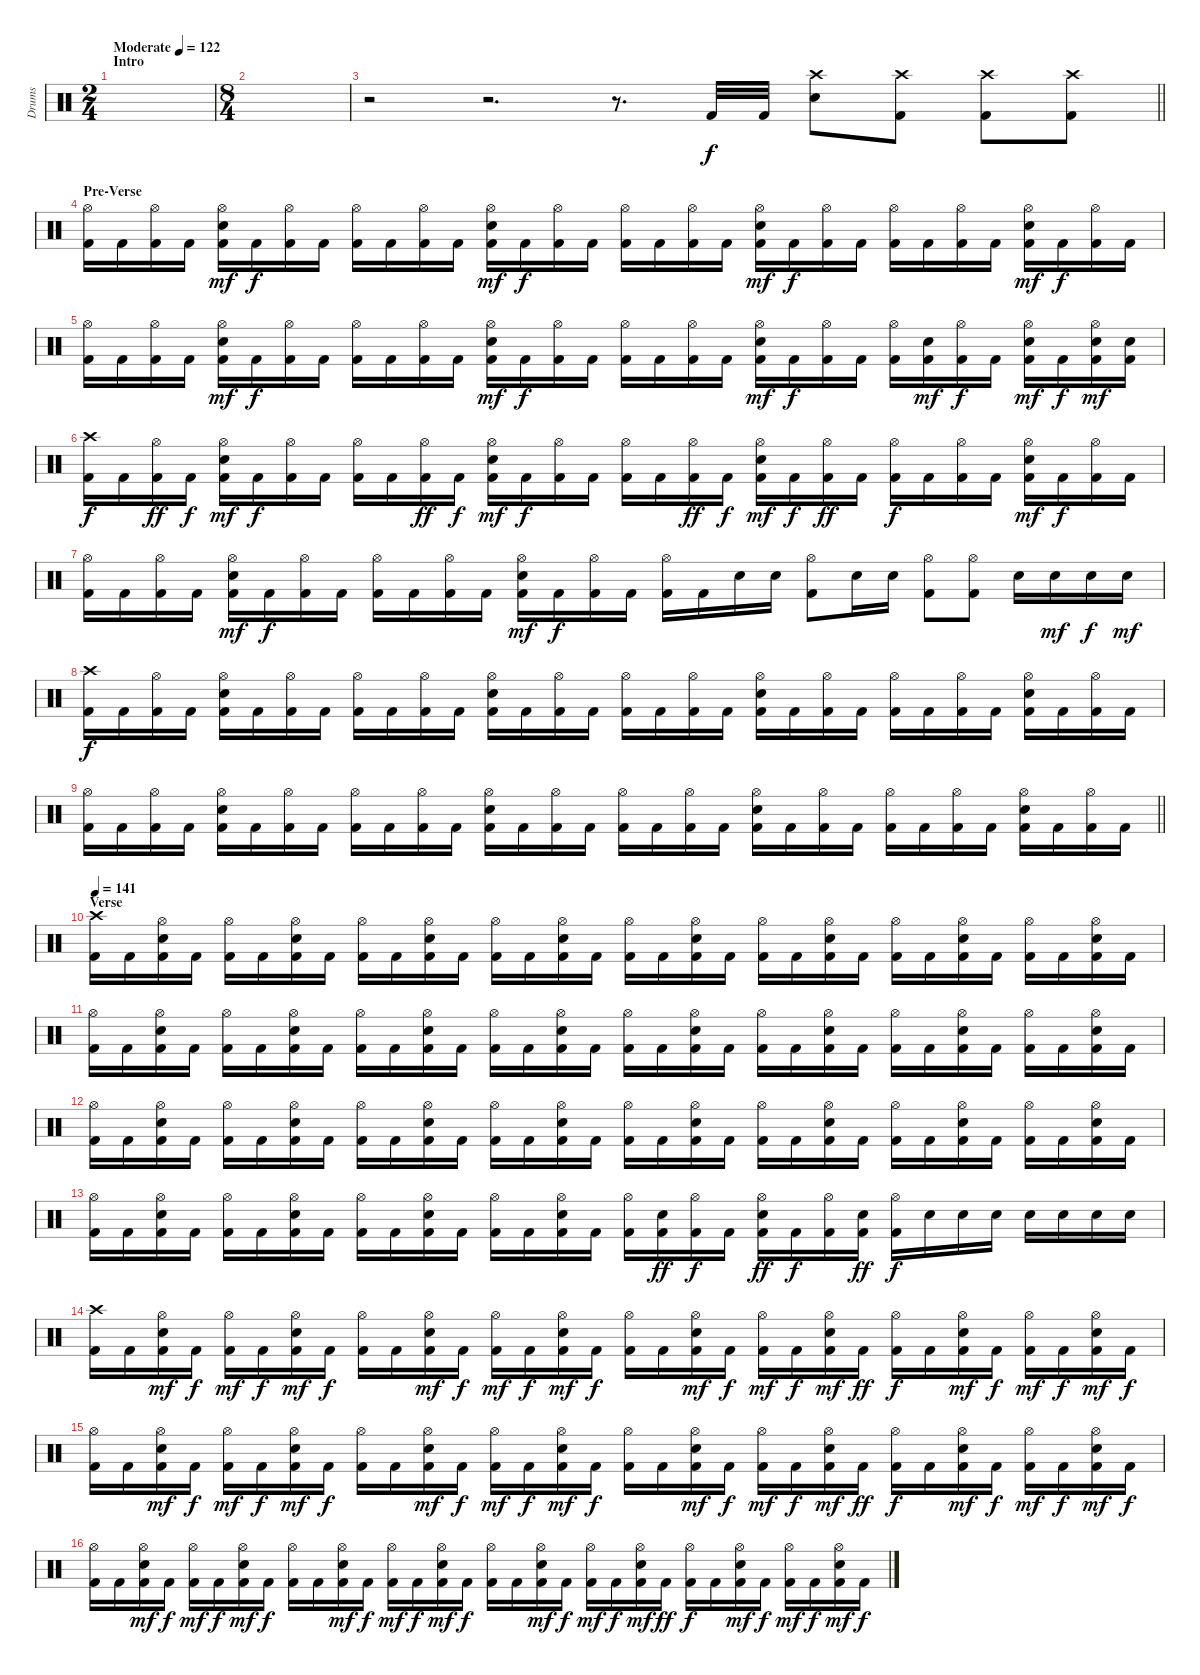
\track ("Drums" "Drums") {instrument percussion}
\staff {score}
\articulation defaults
\ts (2 4)
\section ("" "Intro")
\tempo (122 "Moderate")
\tempo 129
\tempo (122 "Moderate")
\clef neutral
\ks c
|
\ts (8 4)
|
\barLineRight lightlight
r.2 r.2{d} r.8{d} "Kick (hit) 2".32 "Kick (hit) 2".32 ("Crash high (hit)" "Snare (hit) 2").8 ("Crash high (hit)" "Kick (hit) 2").8 ("Crash high (hit)" "Kick (hit) 2").8 ("Crash high (hit)" "Kick (hit) 2").8 |
\section ("" "Pre-Verse")
("Hi-Hat (open)" "Kick (hit) 2").16 "Kick (hit) 2".16 ("Hi-Hat (open)" "Kick (hit) 2").16 "Kick (hit) 2".16 ("Hi-Hat (open)" "Snare (hit) 2" "Kick (hit) 2").16{dy mf} "Kick (hit) 2".16{dy f} ("Hi-Hat (open)" "Kick (hit) 2").16 "Kick (hit) 2".16 ("Hi-Hat (open)" "Kick (hit) 2").16 "Kick (hit) 2".16 ("Hi-Hat (open)" "Kick (hit) 2").16 "Kick (hit) 2".16 ("Hi-Hat (open)" "Snare (hit) 2" "Kick (hit) 2").16{dy mf} "Kick (hit) 2".16{dy f} ("Hi-Hat (open)" "Kick (hit) 2").16 "Kick (hit) 2".16 ("Hi-Hat (open)" "Kick (hit) 2").16 "Kick (hit) 2".16 ("Hi-Hat (open)" "Kick (hit) 2").16 "Kick (hit) 2".16 ("Hi-Hat (open)" "Snare (hit) 2" "Kick (hit) 2").16{dy mf} "Kick (hit) 2".16{dy f} ("Hi-Hat (open)" "Kick (hit) 2").16 "Kick (hit) 2".16 ("Hi-Hat (open)" "Kick (hit) 2").16 "Kick (hit) 2".16 ("Hi-Hat (open)" "Kick (hit) 2").16 "Kick (hit) 2".16 ("Hi-Hat (open)" "Snare (hit) 2" "Kick (hit) 2").16{dy mf} "Kick (hit) 2".16{dy f} ("Hi-Hat (open)" "Kick (hit) 2").16 "Kick (hit) 2".16 |
("Hi-Hat (open)" "Kick (hit) 2").16 "Kick (hit) 2".16 ("Hi-Hat (open)" "Kick (hit) 2").16 "Kick (hit) 2".16 ("Hi-Hat (open)" "Snare (hit) 2" "Kick (hit) 2").16{dy mf} "Kick (hit) 2".16{dy f} ("Hi-Hat (open)" "Kick (hit) 2").16 "Kick (hit) 2".16 ("Hi-Hat (open)" "Kick (hit) 2").16 "Kick (hit) 2".16 ("Hi-Hat (open)" "Kick (hit) 2").16 "Kick (hit) 2".16 ("Hi-Hat (open)" "Snare (hit) 2" "Kick (hit) 2").16{dy mf} "Kick (hit) 2".16{dy f} ("Hi-Hat (open)" "Kick (hit) 2").16 "Kick (hit) 2".16 ("Hi-Hat (open)" "Kick (hit) 2").16 "Kick (hit) 2".16 ("Hi-Hat (open)" "Kick (hit) 2").16 "Kick (hit) 2".16 ("Hi-Hat (open)" "Snare (hit) 2" "Kick (hit) 2").16{dy mf} "Kick (hit) 2".16{dy f} ("Hi-Hat (open)" "Kick (hit) 2").16 "Kick (hit) 2".16 ("Hi-Hat (open)" "Kick (hit) 2").16 ("Snare (hit) 2" "Kick (hit) 2").16{dy mf} ("Hi-Hat (open)" "Kick (hit) 2").16{dy f} "Kick (hit) 2".16 ("Hi-Hat (open)" "Snare (hit) 2" "Kick (hit) 2").16{dy mf} "Kick (hit) 2".16{dy f} ("Hi-Hat (open)" "Snare (hit) 2" "Kick (hit) 2").16{dy mf} ("Snare (hit) 2" "Kick (hit) 2").16 |
("Crash high (hit)" "Kick (hit) 2").16{dy f} "Kick (hit) 2".16 ("Hi-Hat (open)" "Kick (hit) 2").16{dy ff} "Kick (hit) 2".16{dy f} ("Hi-Hat (open)" "Snare (hit) 2" "Kick (hit) 2").16{dy mf} "Kick (hit) 2".16{dy f} ("Hi-Hat (open)" "Kick (hit) 2").16 "Kick (hit) 2".16 ("Hi-Hat (open)" "Kick (hit) 2").16 "Kick (hit) 2".16 ("Hi-Hat (open)" "Kick (hit) 2").16{dy ff} "Kick (hit) 2".16{dy f} ("Hi-Hat (open)" "Snare (hit) 2" "Kick (hit) 2").16{dy mf} "Kick (hit) 2".16{dy f} ("Hi-Hat (open)" "Kick (hit) 2").16 "Kick (hit) 2".16 ("Hi-Hat (open)" "Kick (hit) 2").16 "Kick (hit) 2".16 ("Hi-Hat (open)" "Kick (hit) 2").16{dy ff} "Kick (hit) 2".16{dy f} ("Hi-Hat (open)" "Snare (hit) 2" "Kick (hit) 2").16{dy mf} "Kick (hit) 2".16{dy f} ("Hi-Hat (open)" "Kick (hit) 2").16{dy ff} "Kick (hit) 2".16 ("Hi-Hat (open)" "Kick (hit) 2").16{dy f} "Kick (hit) 2".16 ("Hi-Hat (open)" "Kick (hit) 2").16 "Kick (hit) 2".16 ("Hi-Hat (open)" "Snare (hit) 2" "Kick (hit) 2").16{dy mf} "Kick (hit) 2".16{dy f} ("Hi-Hat (open)" "Kick (hit) 2").16 "Kick (hit) 2".16 |
("Hi-Hat (open)" "Kick (hit) 2").16 "Kick (hit) 2".16 ("Hi-Hat (open)" "Kick (hit) 2").16 "Kick (hit) 2".16 ("Hi-Hat (open)" "Snare (hit) 2" "Kick (hit) 2").16{dy mf} "Kick (hit) 2".16{dy f} ("Hi-Hat (open)" "Kick (hit) 2").16 "Kick (hit) 2".16 ("Hi-Hat (open)" "Kick (hit) 2").16 "Kick (hit) 2".16 ("Hi-Hat (open)" "Kick (hit) 2").16 "Kick (hit) 2".16 ("Hi-Hat (open)" "Snare (hit) 2" "Kick (hit) 2").16{dy mf} "Kick (hit) 2".16{dy f} ("Hi-Hat (open)" "Kick (hit) 2").16 "Kick (hit) 2".16 ("Hi-Hat (open)" "Kick (hit) 2").16 "Kick (hit) 2".16 "Snare (hit) 2".16 "Snare (hit) 2".16 ("Hi-Hat (open)" "Kick (hit) 2").8 "Snare (hit) 2".16 "Snare (hit) 2".16 ("Hi-Hat (open)" "Kick (hit) 2").8 ("Hi-Hat (open)" "Kick (hit) 2").8 "Snare (hit) 2".16 "Snare (hit) 2".16{dy mf} "Snare (hit) 2".16{dy f} "Snare (hit) 2".16{dy mf} |
("Crash high (hit)" "Kick (hit) 2").16{dy f} "Kick (hit) 2".16 ("Hi-Hat (open)" "Kick (hit) 2").16 "Kick (hit) 2".16 ("Hi-Hat (open)" "Snare (hit) 2" "Kick (hit) 2").16 "Kick (hit) 2".16 ("Hi-Hat (open)" "Kick (hit) 2").16 "Kick (hit) 2".16 ("Hi-Hat (open)" "Kick (hit) 2").16 "Kick (hit) 2".16 ("Hi-Hat (open)" "Kick (hit) 2").16 "Kick (hit) 2".16 ("Hi-Hat (open)" "Snare (hit) 2" "Kick (hit) 2").16 "Kick (hit) 2".16 ("Hi-Hat (open)" "Kick (hit) 2").16 "Kick (hit) 2".16 ("Hi-Hat (open)" "Kick (hit) 2").16 "Kick (hit) 2".16 ("Hi-Hat (open)" "Kick (hit) 2").16 "Kick (hit) 2".16 ("Hi-Hat (open)" "Snare (hit) 2" "Kick (hit) 2").16 "Kick (hit) 2".16 ("Hi-Hat (open)" "Kick (hit) 2").16 "Kick (hit) 2".16 ("Hi-Hat (open)" "Kick (hit) 2").16 "Kick (hit) 2".16 ("Hi-Hat (open)" "Kick (hit) 2").16 "Kick (hit) 2".16 ("Hi-Hat (open)" "Snare (hit) 2" "Kick (hit) 2").16 "Kick (hit) 2".16 ("Hi-Hat (open)" "Kick (hit) 2").16 "Kick (hit) 2".16 |
\barLineRight lightlight
("Hi-Hat (open)" "Kick (hit) 2").16 "Kick (hit) 2".16 ("Hi-Hat (open)" "Kick (hit) 2").16 "Kick (hit) 2".16 ("Hi-Hat (open)" "Snare (hit) 2" "Kick (hit) 2").16 "Kick (hit) 2".16 ("Hi-Hat (open)" "Kick (hit) 2").16 "Kick (hit) 2".16 ("Hi-Hat (open)" "Kick (hit) 2").16 "Kick (hit) 2".16 ("Hi-Hat (open)" "Kick (hit) 2").16 "Kick (hit) 2".16 ("Hi-Hat (open)" "Snare (hit) 2" "Kick (hit) 2").16 "Kick (hit) 2".16 ("Hi-Hat (open)" "Kick (hit) 2").16 "Kick (hit) 2".16 ("Hi-Hat (open)" "Kick (hit) 2").16 "Kick (hit) 2".16 ("Hi-Hat (open)" "Kick (hit) 2").16 "Kick (hit) 2".16 ("Hi-Hat (open)" "Snare (hit) 2" "Kick (hit) 2").16 "Kick (hit) 2".16 ("Hi-Hat (open)" "Kick (hit) 2").16 "Kick (hit) 2".16 ("Hi-Hat (open)" "Kick (hit) 2").16 "Kick (hit) 2".16 ("Hi-Hat (open)" "Kick (hit) 2").16 "Kick (hit) 2".16 ("Hi-Hat (open)" "Snare (hit) 2" "Kick (hit) 2").16 "Kick (hit) 2".16 ("Hi-Hat (open)" "Kick (hit) 2").16 "Kick (hit) 2".16 |
\section ("" "Verse")
\tempo 141
("Crash high (hit)" "Kick (hit) 2").16 "Kick (hit) 2".16 ("Hi-Hat (open)" "Snare (hit) 2" "Kick (hit) 2").16 "Kick (hit) 2".16 ("Hi-Hat (open)" "Kick (hit) 2").16 "Kick (hit) 2".16 ("Hi-Hat (open)" "Snare (hit) 2" "Kick (hit) 2").16 "Kick (hit) 2".16 ("Hi-Hat (open)" "Kick (hit) 2").16 "Kick (hit) 2".16 ("Hi-Hat (open)" "Snare (hit) 2" "Kick (hit) 2").16 "Kick (hit) 2".16 ("Hi-Hat (open)" "Kick (hit) 2").16 "Kick (hit) 2".16 ("Hi-Hat (open)" "Snare (hit) 2" "Kick (hit) 2").16 "Kick (hit) 2".16 ("Hi-Hat (open)" "Kick (hit) 2").16 "Kick (hit) 2".16 ("Hi-Hat (open)" "Snare (hit) 2" "Kick (hit) 2").16 "Kick (hit) 2".16 ("Hi-Hat (open)" "Kick (hit) 2").16 "Kick (hit) 2".16 ("Hi-Hat (open)" "Snare (hit) 2" "Kick (hit) 2").16 "Kick (hit) 2".16 ("Hi-Hat (open)" "Kick (hit) 2").16 "Kick (hit) 2".16 ("Hi-Hat (open)" "Snare (hit) 2" "Kick (hit) 2").16 "Kick (hit) 2".16 ("Hi-Hat (open)" "Kick (hit) 2").16 "Kick (hit) 2".16 ("Hi-Hat (open)" "Snare (hit) 2" "Kick (hit) 2").16 "Kick (hit) 2".16 |
("Hi-Hat (open)" "Kick (hit) 2").16 "Kick (hit) 2".16 ("Hi-Hat (open)" "Snare (hit) 2" "Kick (hit) 2").16 "Kick (hit) 2".16 ("Hi-Hat (open)" "Kick (hit) 2").16 "Kick (hit) 2".16 ("Hi-Hat (open)" "Snare (hit) 2" "Kick (hit) 2").16 "Kick (hit) 2".16 ("Hi-Hat (open)" "Kick (hit) 2").16 "Kick (hit) 2".16 ("Hi-Hat (open)" "Snare (hit) 2" "Kick (hit) 2").16 "Kick (hit) 2".16 ("Hi-Hat (open)" "Kick (hit) 2").16 "Kick (hit) 2".16 ("Hi-Hat (open)" "Snare (hit) 2" "Kick (hit) 2").16 "Kick (hit) 2".16 ("Hi-Hat (open)" "Kick (hit) 2").16 "Kick (hit) 2".16 ("Hi-Hat (open)" "Snare (hit) 2" "Kick (hit) 2").16 "Kick (hit) 2".16 ("Hi-Hat (open)" "Kick (hit) 2").16 "Kick (hit) 2".16 ("Hi-Hat (open)" "Snare (hit) 2" "Kick (hit) 2").16 "Kick (hit) 2".16 ("Hi-Hat (open)" "Kick (hit) 2").16 "Kick (hit) 2".16 ("Hi-Hat (open)" "Snare (hit) 2" "Kick (hit) 2").16 "Kick (hit) 2".16 ("Hi-Hat (open)" "Kick (hit) 2").16 "Kick (hit) 2".16 ("Hi-Hat (open)" "Snare (hit) 2" "Kick (hit) 2").16 "Kick (hit) 2".16 |
("Hi-Hat (open)" "Kick (hit) 2").16 "Kick (hit) 2".16 ("Hi-Hat (open)" "Snare (hit) 2" "Kick (hit) 2").16 "Kick (hit) 2".16 ("Hi-Hat (open)" "Kick (hit) 2").16 "Kick (hit) 2".16 ("Hi-Hat (open)" "Snare (hit) 2" "Kick (hit) 2").16 "Kick (hit) 2".16 ("Hi-Hat (open)" "Kick (hit) 2").16 "Kick (hit) 2".16 ("Hi-Hat (open)" "Snare (hit) 2" "Kick (hit) 2").16 "Kick (hit) 2".16 ("Hi-Hat (open)" "Kick (hit) 2").16 "Kick (hit) 2".16 ("Hi-Hat (open)" "Snare (hit) 2" "Kick (hit) 2").16 "Kick (hit) 2".16 ("Hi-Hat (open)" "Kick (hit) 2").16 "Kick (hit) 2".16 ("Hi-Hat (open)" "Snare (hit) 2" "Kick (hit) 2").16 "Kick (hit) 2".16 ("Hi-Hat (open)" "Kick (hit) 2").16 "Kick (hit) 2".16 ("Hi-Hat (open)" "Snare (hit) 2" "Kick (hit) 2").16 "Kick (hit) 2".16 ("Hi-Hat (open)" "Kick (hit) 2").16 "Kick (hit) 2".16 ("Hi-Hat (open)" "Snare (hit) 2" "Kick (hit) 2").16 "Kick (hit) 2".16 ("Hi-Hat (open)" "Kick (hit) 2").16 "Kick (hit) 2".16 ("Hi-Hat (open)" "Snare (hit) 2" "Kick (hit) 2").16 "Kick (hit) 2".16 |
("Hi-Hat (open)" "Kick (hit) 2").16 "Kick (hit) 2".16 ("Hi-Hat (open)" "Snare (hit) 2" "Kick (hit) 2").16 "Kick (hit) 2".16 ("Hi-Hat (open)" "Kick (hit) 2").16 "Kick (hit) 2".16 ("Hi-Hat (open)" "Snare (hit) 2" "Kick (hit) 2").16 "Kick (hit) 2".16 ("Hi-Hat (open)" "Kick (hit) 2").16 "Kick (hit) 2".16 ("Hi-Hat (open)" "Snare (hit) 2" "Kick (hit) 2").16 "Kick (hit) 2".16 ("Hi-Hat (open)" "Kick (hit) 2").16 "Kick (hit) 2".16 ("Hi-Hat (open)" "Snare (hit) 2" "Kick (hit) 2").16 "Kick (hit) 2".16 ("Hi-Hat (open)" "Kick (hit) 2").16 ("Snare (hit) 2" "Kick (hit) 2").16{dy ff} ("Hi-Hat (open)" "Kick (hit) 2").16{dy f} "Kick (hit) 2".16 ("Hi-Hat (open)" "Snare (hit) 2" "Kick (hit) 2").16{dy ff} "Kick (hit) 2".16{dy f} ("Hi-Hat (open)" "Kick (hit) 2").16 ("Snare (hit) 2" "Kick (hit) 2").16{dy ff} ("Hi-Hat (open)" "Kick (hit) 2").16{dy f} "Snare (hit) 2".16 "Snare (hit) 2".16 "Snare (hit) 2".16 "Snare (hit) 2".16 "Snare (hit) 2".16 "Snare (hit) 2".16 "Snare (hit) 2".16 |
("Crash high (hit)" "Kick (hit) 2").16 "Kick (hit) 2".16 ("Hi-Hat (open)" "Snare (hit) 2" "Kick (hit) 2").16{dy mf} "Kick (hit) 2".16{dy f} ("Hi-Hat (open)" "Kick (hit) 2").16{dy mf} "Kick (hit) 2".16{dy f} ("Hi-Hat (open)" "Snare (hit) 2" "Kick (hit) 2").16{dy mf} "Kick (hit) 2".16{dy f} ("Hi-Hat (open)" "Kick (hit) 2").16 "Kick (hit) 2".16 ("Hi-Hat (open)" "Snare (hit) 2" "Kick (hit) 2").16{dy mf} "Kick (hit) 2".16{dy f} ("Hi-Hat (open)" "Kick (hit) 2").16{dy mf} "Kick (hit) 2".16{dy f} ("Hi-Hat (open)" "Snare (hit) 2" "Kick (hit) 2").16{dy mf} "Kick (hit) 2".16{dy f} ("Hi-Hat (open)" "Kick (hit) 2").16 "Kick (hit) 2".16 ("Hi-Hat (open)" "Snare (hit) 2" "Kick (hit) 2").16{dy mf} "Kick (hit) 2".16{dy f} ("Hi-Hat (open)" "Kick (hit) 2").16{dy mf} "Kick (hit) 2".16{dy f} ("Hi-Hat (open)" "Snare (hit) 2" "Kick (hit) 2").16{dy mf} "Kick (hit) 2".16{dy ff} ("Hi-Hat (open)" "Kick (hit) 2").16{dy f} "Kick (hit) 2".16 ("Hi-Hat (open)" "Snare (hit) 2" "Kick (hit) 2").16{dy mf} "Kick (hit) 2".16{dy f} ("Hi-Hat (open)" "Kick (hit) 2").16{dy mf} "Kick (hit) 2".16{dy f} ("Hi-Hat (open)" "Snare (hit) 2" "Kick (hit) 2").16{dy mf} "Kick (hit) 2".16{dy f} |
("Hi-Hat (open)" "Kick (hit) 2").16 "Kick (hit) 2".16 ("Hi-Hat (open)" "Snare (hit) 2" "Kick (hit) 2").16{dy mf} "Kick (hit) 2".16{dy f} ("Hi-Hat (open)" "Kick (hit) 2").16{dy mf} "Kick (hit) 2".16{dy f} ("Hi-Hat (open)" "Snare (hit) 2" "Kick (hit) 2").16{dy mf} "Kick (hit) 2".16{dy f} ("Hi-Hat (open)" "Kick (hit) 2").16 "Kick (hit) 2".16 ("Hi-Hat (open)" "Snare (hit) 2" "Kick (hit) 2").16{dy mf} "Kick (hit) 2".16{dy f} ("Hi-Hat (open)" "Kick (hit) 2").16{dy mf} "Kick (hit) 2".16{dy f} ("Hi-Hat (open)" "Snare (hit) 2" "Kick (hit) 2").16{dy mf} "Kick (hit) 2".16{dy f} ("Hi-Hat (open)" "Kick (hit) 2").16 "Kick (hit) 2".16 ("Hi-Hat (open)" "Snare (hit) 2" "Kick (hit) 2").16{dy mf} "Kick (hit) 2".16{dy f} ("Hi-Hat (open)" "Kick (hit) 2").16{dy mf} "Kick (hit) 2".16{dy f} ("Hi-Hat (open)" "Snare (hit) 2" "Kick (hit) 2").16{dy mf} "Kick (hit) 2".16{dy ff} ("Hi-Hat (open)" "Kick (hit) 2").16{dy f} "Kick (hit) 2".16 ("Hi-Hat (open)" "Snare (hit) 2" "Kick (hit) 2").16{dy mf} "Kick (hit) 2".16{dy f} ("Hi-Hat (open)" "Kick (hit) 2").16{dy mf} "Kick (hit) 2".16{dy f} ("Hi-Hat (open)" "Snare (hit) 2" "Kick (hit) 2").16{dy mf} "Kick (hit) 2".16{dy f} |
("Hi-Hat (open)" "Kick (hit) 2").16 "Kick (hit) 2".16 ("Hi-Hat (open)" "Snare (hit) 2" "Kick (hit) 2").16{dy mf} "Kick (hit) 2".16{dy f} ("Hi-Hat (open)" "Kick (hit) 2").16{dy mf} "Kick (hit) 2".16{dy f} ("Hi-Hat (open)" "Snare (hit) 2" "Kick (hit) 2").16{dy mf} "Kick (hit) 2".16{dy f} ("Hi-Hat (open)" "Kick (hit) 2").16 "Kick (hit) 2".16 ("Hi-Hat (open)" "Snare (hit) 2" "Kick (hit) 2").16{dy mf} "Kick (hit) 2".16{dy f} ("Hi-Hat (open)" "Kick (hit) 2").16{dy mf} "Kick (hit) 2".16{dy f} ("Hi-Hat (open)" "Snare (hit) 2" "Kick (hit) 2").16{dy mf} "Kick (hit) 2".16{dy f} ("Hi-Hat (open)" "Kick (hit) 2").16 "Kick (hit) 2".16 ("Hi-Hat (open)" "Snare (hit) 2" "Kick (hit) 2").16{dy mf} "Kick (hit) 2".16{dy f} ("Hi-Hat (open)" "Kick (hit) 2").16{dy mf} "Kick (hit) 2".16{dy f} ("Hi-Hat (open)" "Snare (hit) 2" "Kick (hit) 2").16{dy mf} "Kick (hit) 2".16{dy ff} ("Hi-Hat (open)" "Kick (hit) 2").16{dy f} "Kick (hit) 2".16 ("Hi-Hat (open)" "Snare (hit) 2" "Kick (hit) 2").16{dy mf} "Kick (hit) 2".16{dy f} ("Hi-Hat (open)" "Kick (hit) 2").16{dy mf} "Kick (hit) 2".16{dy f} ("Hi-Hat (open)" "Snare (hit) 2" "Kick (hit) 2").16{dy mf} "Kick (hit) 2".16{dy f}
